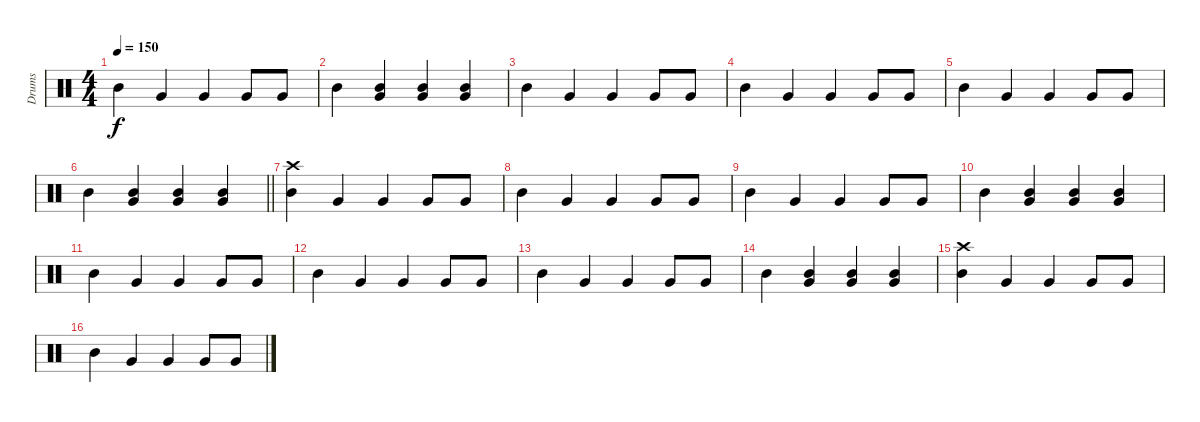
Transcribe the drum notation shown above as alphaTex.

\track ("Drums" "Drums") {instrument percussion}
\staff
\articulation defaults
\ts (4 4)
\tempo 150
\clef neutral
\ks c "Mid Tom (hit)".4{dy f} "Very Low Tom (hit)".4 "Very Low Tom (hit)".4 "Very Low Tom (hit)".8 "Very Low Tom (hit)".8
|
"Mid Tom (hit)".4 ("Mid Tom (hit)" "Very Low Tom (hit)").4 ("Mid Tom (hit)" "Very Low Tom (hit)").4 ("Mid Tom (hit)" "Very Low Tom (hit)").4 |
"Mid Tom (hit)".4 "Very Low Tom (hit)".4 "Very Low Tom (hit)".4 "Very Low Tom (hit)".8 "Very Low Tom (hit)".8 |
"Mid Tom (hit)".4 "Very Low Tom (hit)".4 "Very Low Tom (hit)".4 "Very Low Tom (hit)".8 "Very Low Tom (hit)".8 |
"Mid Tom (hit)".4 "Very Low Tom (hit)".4 "Very Low Tom (hit)".4 "Very Low Tom (hit)".8 "Very Low Tom (hit)".8 |
\barLineRight lightlight "Mid Tom (hit)".4
("Mid Tom (hit)" "Very Low Tom (hit)").4 ("Mid Tom (hit)" "Very Low Tom (hit)").4 ("Mid Tom (hit)" "Very Low Tom (hit)").4 |
("Crash high (hit)" "Mid Tom (hit)").4 "Very Low Tom (hit)".4 "Very Low Tom (hit)".4 "Very Low Tom (hit)".8 "Very Low Tom (hit)".8 |
"Mid Tom (hit)".4 "Very Low Tom (hit)".4 "Very Low Tom (hit)".4 "Very Low Tom (hit)".8 "Very Low Tom (hit)".8 |
"Mid Tom (hit)".4 "Very Low Tom (hit)".4 "Very Low Tom (hit)".4 "Very Low Tom (hit)".8 "Very Low Tom (hit)".8 |
"Mid Tom (hit)".4 ("Mid Tom (hit)" "Very Low Tom (hit)").4 ("Mid Tom (hit)" "Very Low Tom (hit)").4 ("Mid Tom (hit)" "Very Low Tom (hit)").4 |
"Mid Tom (hit)".4 "Very Low Tom (hit)".4 "Very Low Tom (hit)".4 "Very Low Tom (hit)".8 "Very Low Tom (hit)".8 |
"Mid Tom (hit)".4 "Very Low Tom (hit)".4 "Very Low Tom (hit)".4 "Very Low Tom (hit)".8 "Very Low Tom (hit)".8 |
"Mid Tom (hit)".4 "Very Low Tom (hit)".4 "Very Low Tom (hit)".4 "Very Low Tom (hit)".8 "Very Low Tom (hit)".8 |
"Mid Tom (hit)".4 ("Mid Tom (hit)" "Very Low Tom (hit)").4 ("Mid Tom (hit)" "Very Low Tom (hit)").4 ("Mid Tom (hit)" "Very Low Tom (hit)").4 |
("Crash high (hit)" "Mid Tom (hit)").4 "Very Low Tom (hit)".4 "Very Low Tom (hit)".4 "Very Low Tom (hit)".8 "Very Low Tom (hit)".8 |
"Mid Tom (hit)".4 "Very Low Tom (hit)".4 "Very Low Tom (hit)".4 "Very Low Tom (hit)".8 "Very Low Tom (hit)".8
